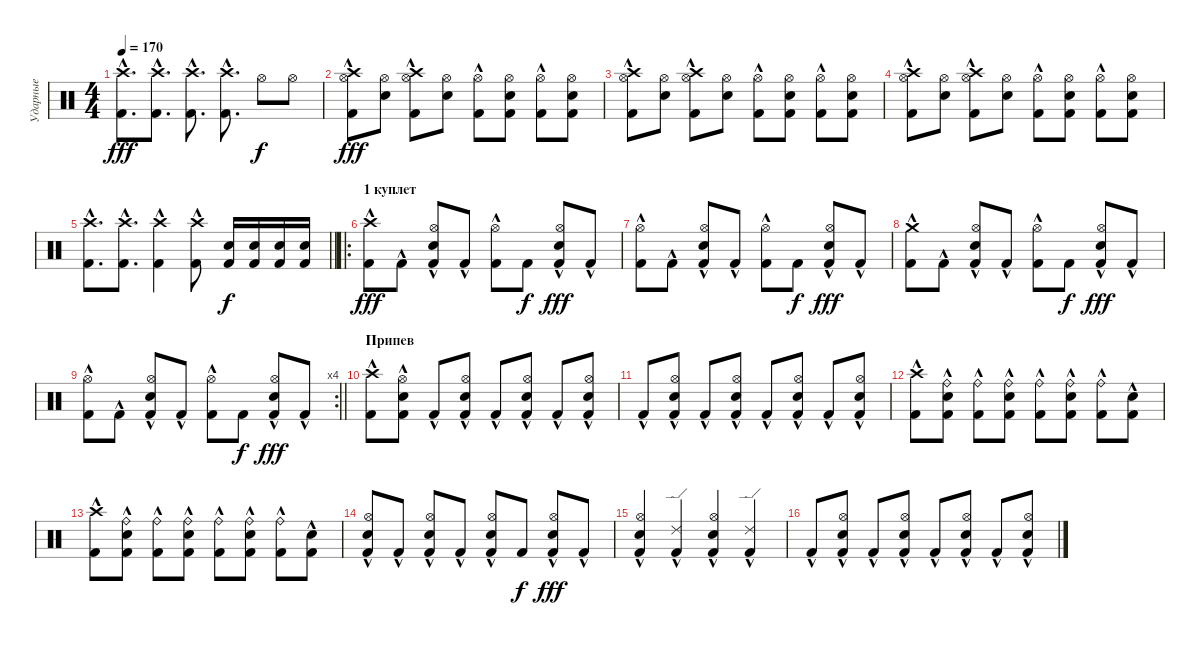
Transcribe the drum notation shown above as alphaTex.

\track ("Ударные" "Ударные") {instrument percussion}
\staff {score}
\articulation defaults
\ts (4 4)
\tempo 170
\clef neutral
\ks c
("Kick (hit) 2"{hac} "Crash high (hit)").8{d dy fff} ("Kick (hit) 2"{hac} "Crash high (hit)").8{d} ("Kick (hit) 2"{hac} "Crash high (hit)").8{d} ("Kick (hit) 2"{hac} "Crash high (hit)").8{d} "Hi-Hat (open)".8{dy f} "Hi-Hat (open)".8 |
("Kick (hit) 2"{hac} "Hi-Hat (open)" "Crash high (hit)").8{dy fff} ("Snare (hit) 2" "Hi-Hat (open)").8 ("Kick (hit) 2"{hac} "Hi-Hat (open)" "Crash high (hit)").8 ("Snare (hit) 2" "Hi-Hat (open)").8 ("Kick (hit) 2"{hac} "Hi-Hat (open)").8 ("Snare (hit) 2" "Hi-Hat (open)" "Kick (hit) 2").8 ("Kick (hit) 2"{hac} "Hi-Hat (open)").8 ("Snare (hit) 2" "Hi-Hat (open)" "Kick (hit) 2").8 |
("Kick (hit) 2"{hac} "Hi-Hat (open)" "Crash high (hit)").8 ("Snare (hit) 2" "Hi-Hat (open)").8 ("Kick (hit) 2"{hac} "Hi-Hat (open)" "Crash high (hit)").8 ("Snare (hit) 2" "Hi-Hat (open)").8 ("Kick (hit) 2"{hac} "Hi-Hat (open)").8 ("Snare (hit) 2" "Hi-Hat (open)" "Kick (hit) 2").8 ("Kick (hit) 2"{hac} "Hi-Hat (open)").8 ("Snare (hit) 2" "Hi-Hat (open)" "Kick (hit) 2").8 |
("Kick (hit) 2"{hac} "Hi-Hat (open)" "Crash high (hit)").8 ("Snare (hit) 2" "Hi-Hat (open)").8 ("Kick (hit) 2"{hac} "Hi-Hat (open)" "Crash high (hit)").8 ("Snare (hit) 2" "Hi-Hat (open)").8 ("Kick (hit) 2"{hac} "Hi-Hat (open)").8 ("Snare (hit) 2" "Hi-Hat (open)" "Kick (hit) 2").8 ("Kick (hit) 2"{hac} "Hi-Hat (open)").8 ("Snare (hit) 2" "Hi-Hat (open)" "Kick (hit) 2").8 |
\barLineRight lightlight
("Kick (hit) 2"{hac} "Crash high (hit)").8{d} ("Kick (hit) 2"{hac} "Crash high (hit)").8{d} ("Kick (hit) 2"{hac} "Crash high (hit)").4 ("Kick (hit) 2"{hac} "Crash high (hit)").8 ("Electric Snare (hit)" "Kick (hit) 2").16{dy f} ("Electric Snare (hit)" "Kick (hit) 2").16 ("Electric Snare (hit)" "Kick (hit) 2").16 ("Electric Snare (hit)" "Kick (hit) 2").16 |
\ro
\section ("" "1 куплет")
("Kick (hit) 2"{hac} "Crash high (hit)").8{dy fff balance 0} "Kick (hit) 2"{hac}.8{balance 8} ("Kick (hit) 2"{hac} "Hi-Hat (open)" "Snare (hit) 2").8 "Kick (hit) 2"{hac}.8 ("Kick (hit) 2"{hac} "Hi-Hat (open)").8 "Kick (hit) 2".8{dy f} ("Kick (hit) 2"{hac} "Hi-Hat (open)" "Snare (hit) 2").8{dy fff} "Kick (hit) 2"{hac}.8 |
("Kick (hit) 2"{hac} "Hi-Hat (open)").8 "Kick (hit) 2"{hac}.8 ("Kick (hit) 2"{hac} "Hi-Hat (open)" "Snare (hit) 2").8 "Kick (hit) 2"{hac}.8 ("Kick (hit) 2"{hac} "Hi-Hat (open)").8 "Kick (hit) 2".8{dy f} ("Kick (hit) 2"{hac} "Hi-Hat (open)" "Snare (hit) 2").8{dy fff} "Kick (hit) 2"{hac}.8 |
("Kick (hit) 2"{hac} "Crash medium (hit)").8{balance 16} "Kick (hit) 2"{hac}.8{balance 8} ("Kick (hit) 2"{hac} "Hi-Hat (open)" "Snare (hit) 2").8 "Kick (hit) 2"{hac}.8 ("Kick (hit) 2"{hac} "Hi-Hat (open)").8 "Kick (hit) 2".8{dy f} ("Kick (hit) 2"{hac} "Hi-Hat (open)" "Snare (hit) 2").8{dy fff} "Kick (hit) 2"{hac}.8 |
\rc 4
\barLineRight lightlight
("Kick (hit) 2"{hac} "Hi-Hat (open)").8 "Kick (hit) 2"{hac}.8 ("Kick (hit) 2"{hac} "Hi-Hat (open)" "Snare (hit) 2").8 "Kick (hit) 2"{hac}.8 ("Kick (hit) 2"{hac} "Hi-Hat (open)").8 "Kick (hit) 2".8{dy f} ("Kick (hit) 2"{hac} "Hi-Hat (open)" "Snare (hit) 2").8{dy fff} "Kick (hit) 2"{hac}.8 |
\section ("" "Припев")
("Kick (hit) 2"{hac} "Crash high (hit)").8 ("Kick (hit) 2"{hac} "Hi-Hat (open)" "Snare (hit) 2").8 "Kick (hit) 2"{hac}.8 ("Kick (hit) 2"{hac} "Hi-Hat (open)" "Snare (hit) 2").8 "Kick (hit) 2"{hac}.8 ("Kick (hit) 2"{hac} "Hi-Hat (open)" "Snare (hit) 2").8 "Kick (hit) 2"{hac}.8 ("Kick (hit) 2"{hac} "Hi-Hat (open)" "Snare (hit) 2").8 |
"Kick (hit) 2"{hac}.8 ("Kick (hit) 2"{hac} "Hi-Hat (open)" "Snare (hit) 2").8 "Kick (hit) 2"{hac}.8 ("Kick (hit) 2"{hac} "Hi-Hat (open)" "Snare (hit) 2").8 "Kick (hit) 2"{hac}.8 ("Kick (hit) 2"{hac} "Hi-Hat (open)" "Snare (hit) 2").8 "Kick (hit) 2"{hac}.8 ("Kick (hit) 2"{hac} "Hi-Hat (open)" "Snare (hit) 2").8 |
("Kick (hit) 2"{hac} "Crash high (hit)").8 ("Kick (hit) 2"{hac} "Ride (bell)" "Snare (hit) 2").8 ("Kick (hit) 2"{hac} "Ride (bell)").8 ("Kick (hit) 2"{hac} "Ride (bell)" "Snare (hit) 2").8 ("Kick (hit) 2"{hac} "Ride (bell)").8 ("Kick (hit) 2"{hac} "Ride (bell)" "Snare (hit) 2").8 ("Kick (hit) 2"{hac} "Ride (bell)").8 ("Kick (hit) 2"{hac} "Snare (hit) 2").8 |
("Kick (hit) 2"{hac} "Crash high (hit)").8 ("Kick (hit) 2"{hac} "Ride (bell)" "Snare (hit) 2").8 ("Kick (hit) 2"{hac} "Ride (bell)").8 ("Kick (hit) 2"{hac} "Ride (bell)" "Snare (hit) 2").8 ("Kick (hit) 2"{hac} "Ride (bell)").8 ("Kick (hit) 2"{hac} "Ride (bell)" "Snare (hit) 2").8 ("Kick (hit) 2"{hac} "Ride (bell)").8 ("Kick (hit) 2"{hac} "Snare (hit) 2").8 |
("Kick (hit) 2"{hac} "Hi-Hat (open)" "Snare (hit) 2").8 "Kick (hit) 2"{hac}.8 ("Kick (hit) 2"{hac} "Hi-Hat (open)" "Snare (hit) 2").8 "Kick (hit) 2"{hac}.8 ("Kick (hit) 2"{hac} "Hi-Hat (open)" "Snare (hit) 2").8 "Kick (hit) 2".8{dy f} ("Kick (hit) 2"{hac} "Hi-Hat (open)" "Snare (hit) 2").8{dy fff} "Kick (hit) 2"{hac}.8 |
("Kick (hit) 2"{hac} "Hi-Hat (open)" "Snare (hit) 2").4 ("Kick (hit) 2"{hac} "Ride (edge) 2").4 ("Kick (hit) 2"{hac} "Hi-Hat (open)" "Snare (hit) 2").4 ("Kick (hit) 2"{hac} "Ride (edge) 2").4 |
"Kick (hit) 2"{hac}.8 ("Kick (hit) 2"{hac} "Hi-Hat (open)" "Snare (hit) 2").8 "Kick (hit) 2"{hac}.8 ("Kick (hit) 2"{hac} "Hi-Hat (open)" "Snare (hit) 2").8 "Kick (hit) 2"{hac}.8 ("Kick (hit) 2"{hac} "Hi-Hat (open)" "Snare (hit) 2").8 "Kick (hit) 2"{hac}.8 ("Kick (hit) 2"{hac} "Hi-Hat (open)" "Snare (hit) 2").8
